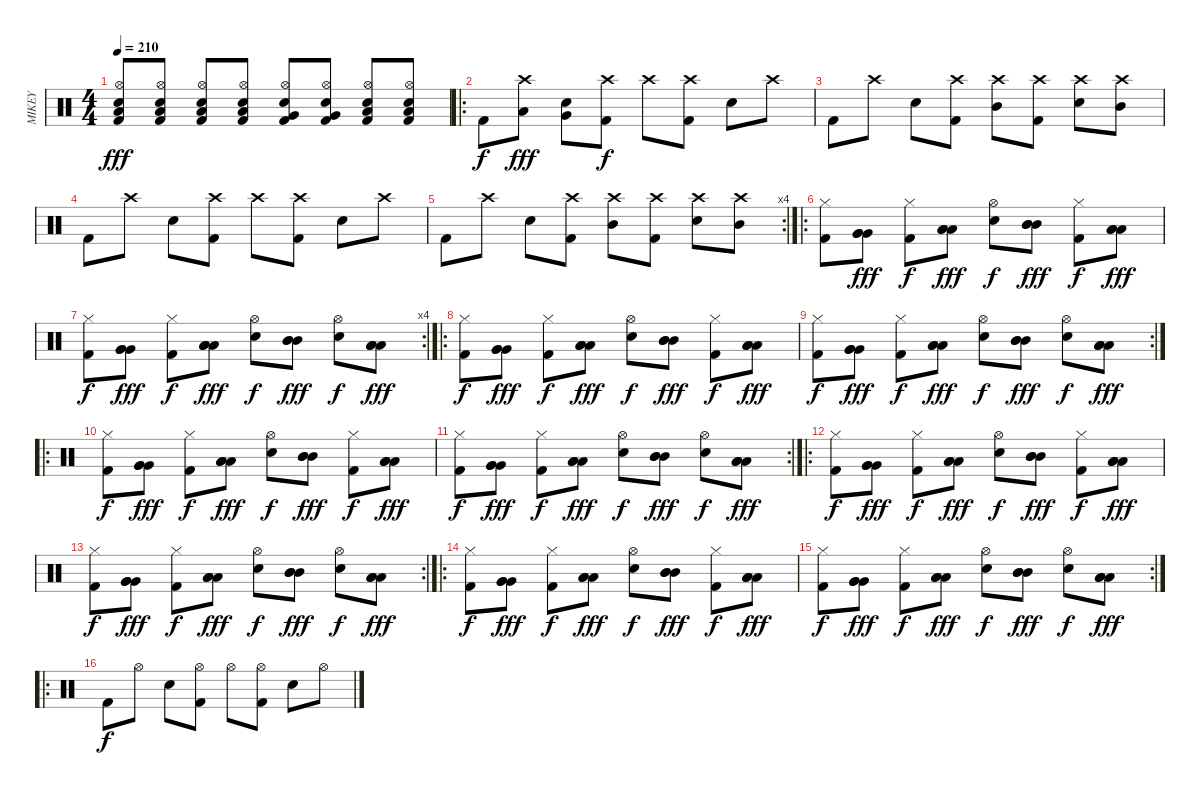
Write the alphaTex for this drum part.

\track ("MIKEY" "MIKEY") {instrument percussion}
\staff {score}
\articulation defaults
\ts (4 4)
\tempo 210
\clef neutral
\ks c
("Kick (hit) 2" "Hi-Hat (open)" "Low Floor Tom (hit)" "Electric Snare (hit)").8{dy fff} ("Kick (hit) 2" "Hi-Hat (open)" "Low Floor Tom (hit)" "Electric Snare (hit)").8 ("Kick (hit) 2" "Hi-Hat (open)" "Low Floor Tom (hit)" "Electric Snare (hit)").8 ("Kick (hit) 2" "Hi-Hat (open)" "Low Floor Tom (hit)" "Electric Snare (hit)").8 ("Kick (hit) 2" "Hi-Hat (open)" "Very Low Tom (hit)" "Electric Snare (hit)").8 ("Kick (hit) 2" "Hi-Hat (open)" "Very Low Tom (hit)" "Electric Snare (hit)").8 ("Kick (hit) 2" "Hi-Hat (open)" "Low Tom (hit)" "Electric Snare (hit)").8 ("Kick (hit) 2" "Hi-Hat (open)" "Low Tom (hit)" "Electric Snare (hit)").8 |
\ro "Kick (hit) 2".8{dy f}
("Crash high (hit)" "Low Tom (hit)").8{dy fff} ("Electric Snare (hit)" "Very Low Tom (hit)").8 ("Kick (hit) 2" "Crash high (hit)").8{dy f} "Crash high (hit)".8 ("Kick (hit) 2" "Crash high (hit)").8 "Electric Snare (hit)".8 "Crash high (hit)".8 |
"Kick (hit) 2".8 "Crash high (hit)".8 "Electric Snare (hit)".8 ("Kick (hit) 2" "Crash high (hit)").8 ("Mid Tom (hit)" "Crash high (hit)").8 ("Kick (hit) 2" "Crash high (hit)").8 ("Electric Snare (hit)" "Crash high (hit)").8 ("Mid Tom (hit)" "Crash high (hit)").8 |
"Kick (hit) 2".8 "Crash high (hit)".8 "Electric Snare (hit)".8 ("Kick (hit) 2" "Crash high (hit)").8 "Crash high (hit)".8 ("Kick (hit) 2" "Crash high (hit)").8 "Electric Snare (hit)".8 "Crash high (hit)".8 |
\rc 4 "Kick (hit) 2".8 "Crash high (hit)".8 "Electric Snare (hit)".8
("Kick (hit) 2" "Crash high (hit)").8 ("Mid Tom (hit)" "Crash high (hit)").8 ("Kick (hit) 2" "Crash high (hit)").8 ("Electric Snare (hit)" "Crash high (hit)").8 ("Mid Tom (hit)" "Crash high (hit)").8 |
\ro
("Hi-Hat (closed)" "Kick (hit) 2").8 ("Very Low Tom (hit)" "Very Low Tom (hit)" "Very Low Tom (hit)").8{dy fff} ("Hi-Hat (closed)" "Kick (hit) 2").8{dy f} ("Low Tom (hit)" "Low Tom (hit)" "Low Tom (hit)").8{dy fff} ("Hi-Hat (open)" "Electric Snare (hit)").8{dy f} ("Mid Tom (hit)" "Mid Tom (hit)" "Mid Tom (hit)").8{dy fff} ("Hi-Hat (closed)" "Kick (hit) 2").8{dy f} ("Low Tom (hit)" "Low Tom (hit)" "Low Tom (hit)").8{dy fff} |
\rc 4
("Hi-Hat (closed)" "Kick (hit) 2").8{dy f} ("Very Low Tom (hit)" "Very Low Tom (hit)" "Very Low Tom (hit)").8{dy fff} ("Hi-Hat (closed)" "Kick (hit) 2").8{dy f} ("Low Tom (hit)" "Low Tom (hit)" "Low Tom (hit)").8{dy fff} ("Hi-Hat (open)" "Electric Snare (hit)").8{dy f} ("Mid Tom (hit)" "Mid Tom (hit)" "Mid Tom (hit)").8{dy fff} ("Hi-Hat (open)" "Electric Snare (hit)").8{dy f} ("Low Tom (hit)" "Low Tom (hit)" "Low Tom (hit)").8{dy fff} |
\ro
("Hi-Hat (closed)" "Kick (hit) 2").8{dy f} ("Very Low Tom (hit)" "Very Low Tom (hit)" "Very Low Tom (hit)").8{dy fff} ("Hi-Hat (closed)" "Kick (hit) 2").8{dy f} ("Low Tom (hit)" "Low Tom (hit)" "Low Tom (hit)").8{dy fff} ("Hi-Hat (open)" "Electric Snare (hit)").8{dy f} ("Mid Tom (hit)" "Mid Tom (hit)" "Mid Tom (hit)").8{dy fff} ("Hi-Hat (closed)" "Kick (hit) 2").8{dy f} ("Low Tom (hit)" "Low Tom (hit)" "Low Tom (hit)").8{dy fff} |
\rc 2
("Hi-Hat (closed)" "Kick (hit) 2").8{dy f} ("Very Low Tom (hit)" "Very Low Tom (hit)" "Very Low Tom (hit)").8{dy fff} ("Hi-Hat (closed)" "Kick (hit) 2").8{dy f} ("Low Tom (hit)" "Low Tom (hit)" "Low Tom (hit)").8{dy fff} ("Hi-Hat (open)" "Electric Snare (hit)").8{dy f} ("Mid Tom (hit)" "Mid Tom (hit)" "Mid Tom (hit)").8{dy fff} ("Hi-Hat (open)" "Electric Snare (hit)").8{dy f} ("Low Tom (hit)" "Low Tom (hit)" "Low Tom (hit)").8{dy fff} |
\ro
("Hi-Hat (closed)" "Kick (hit) 2").8{dy f} ("Very Low Tom (hit)" "Very Low Tom (hit)" "Very Low Tom (hit)").8{dy fff} ("Hi-Hat (closed)" "Kick (hit) 2").8{dy f} ("Low Tom (hit)" "Low Tom (hit)" "Low Tom (hit)").8{dy fff} ("Hi-Hat (open)" "Electric Snare (hit)").8{dy f} ("Mid Tom (hit)" "Mid Tom (hit)" "Mid Tom (hit)").8{dy fff} ("Hi-Hat (closed)" "Kick (hit) 2").8{dy f} ("Low Tom (hit)" "Low Tom (hit)" "Low Tom (hit)").8{dy fff} |
\rc 2
("Hi-Hat (closed)" "Kick (hit) 2").8{dy f} ("Very Low Tom (hit)" "Very Low Tom (hit)" "Very Low Tom (hit)").8{dy fff} ("Hi-Hat (closed)" "Kick (hit) 2").8{dy f} ("Low Tom (hit)" "Low Tom (hit)" "Low Tom (hit)").8{dy fff} ("Hi-Hat (open)" "Electric Snare (hit)").8{dy f} ("Mid Tom (hit)" "Mid Tom (hit)" "Mid Tom (hit)").8{dy fff} ("Hi-Hat (open)" "Electric Snare (hit)").8{dy f} ("Low Tom (hit)" "Low Tom (hit)" "Low Tom (hit)").8{dy fff} |
\ro
("Hi-Hat (closed)" "Kick (hit) 2").8{dy f} ("Very Low Tom (hit)" "Very Low Tom (hit)" "Very Low Tom (hit)").8{dy fff} ("Hi-Hat (closed)" "Kick (hit) 2").8{dy f} ("Low Tom (hit)" "Low Tom (hit)" "Low Tom (hit)").8{dy fff} ("Hi-Hat (open)" "Electric Snare (hit)").8{dy f} ("Mid Tom (hit)" "Mid Tom (hit)" "Mid Tom (hit)").8{dy fff} ("Hi-Hat (closed)" "Kick (hit) 2").8{dy f} ("Low Tom (hit)" "Low Tom (hit)" "Low Tom (hit)").8{dy fff} |
\rc 2
("Hi-Hat (closed)" "Kick (hit) 2").8{dy f} ("Very Low Tom (hit)" "Very Low Tom (hit)" "Very Low Tom (hit)").8{dy fff} ("Hi-Hat (closed)" "Kick (hit) 2").8{dy f} ("Low Tom (hit)" "Low Tom (hit)" "Low Tom (hit)").8{dy fff} ("Hi-Hat (open)" "Electric Snare (hit)").8{dy f} ("Mid Tom (hit)" "Mid Tom (hit)" "Mid Tom (hit)").8{dy fff} ("Hi-Hat (open)" "Electric Snare (hit)").8{dy f} ("Low Tom (hit)" "Low Tom (hit)" "Low Tom (hit)").8{dy fff} |
\ro
("Hi-Hat (closed)" "Kick (hit) 2").8{dy f} ("Very Low Tom (hit)" "Very Low Tom (hit)" "Very Low Tom (hit)").8{dy fff} ("Hi-Hat (closed)" "Kick (hit) 2").8{dy f} ("Low Tom (hit)" "Low Tom (hit)" "Low Tom (hit)").8{dy fff} ("Hi-Hat (open)" "Electric Snare (hit)").8{dy f} ("Mid Tom (hit)" "Mid Tom (hit)" "Mid Tom (hit)").8{dy fff} ("Hi-Hat (closed)" "Kick (hit) 2").8{dy f} ("Low Tom (hit)" "Low Tom (hit)" "Low Tom (hit)").8{dy fff} |
\rc 2
("Hi-Hat (closed)" "Kick (hit) 2").8{dy f} ("Very Low Tom (hit)" "Very Low Tom (hit)" "Very Low Tom (hit)").8{dy fff} ("Hi-Hat (closed)" "Kick (hit) 2").8{dy f} ("Low Tom (hit)" "Low Tom (hit)" "Low Tom (hit)").8{dy fff} ("Hi-Hat (open)" "Electric Snare (hit)").8{dy f} ("Mid Tom (hit)" "Mid Tom (hit)" "Mid Tom (hit)").8{dy fff} ("Hi-Hat (open)" "Electric Snare (hit)").8{dy f} ("Low Tom (hit)" "Low Tom (hit)" "Low Tom (hit)").8{dy fff} |
\ro "Kick (hit) 2".8{dy f} "Hi-Hat (open)".8 "Electric Snare (hit)".8
("Kick (hit) 2" "Hi-Hat (open)").8 "Hi-Hat (open)".8 ("Kick (hit) 2" "Hi-Hat (open)").8 "Electric Snare (hit)".8 "Hi-Hat (open)".8
